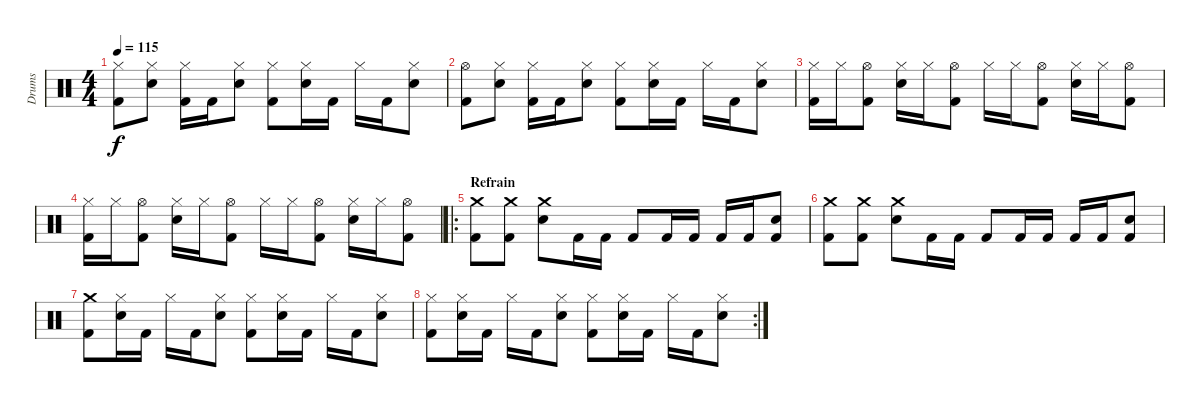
\track ("Drums" "Drums") {instrument percussion}
\staff {score}
\articulation defaults
\ts (4 4)
\tempo 115
\clef neutral
\ks c
("Hi-Hat (closed)" "Kick (hit) 2").8{dy f} ("Hi-Hat (closed)" "Electric Snare (hit)").8 ("Hi-Hat (closed)" "Kick (hit) 2").16 "Kick (hit) 2".16 ("Hi-Hat (closed)" "Electric Snare (hit)").8 ("Hi-Hat (closed)" "Kick (hit) 2").8 ("Hi-Hat (closed)" "Electric Snare (hit)").16 "Kick (hit) 2".16 "Hi-Hat (closed)".16 "Kick (hit) 2".16 ("Hi-Hat (closed)" "Electric Snare (hit)").8 |
("Hi-Hat (open)" "Kick (hit) 2").8 ("Hi-Hat (closed)" "Electric Snare (hit)").8 ("Hi-Hat (closed)" "Kick (hit) 2").16 "Kick (hit) 2".16 ("Hi-Hat (closed)" "Electric Snare (hit)").8 ("Hi-Hat (closed)" "Kick (hit) 2").8 ("Hi-Hat (closed)" "Electric Snare (hit)").16 "Kick (hit) 2".16 "Hi-Hat (closed)".16 "Kick (hit) 2".16 ("Hi-Hat (closed)" "Electric Snare (hit)").8 |
("Hi-Hat (closed)" "Kick (hit) 2").16 "Hi-Hat (closed)".16 ("Hi-Hat (open)" "Kick (hit) 2").8 ("Hi-Hat (closed)" "Electric Snare (hit)").16 "Hi-Hat (closed)".16 ("Hi-Hat (open)" "Kick (hit) 2").8 "Hi-Hat (closed)".16 "Hi-Hat (closed)".16 ("Hi-Hat (open)" "Kick (hit) 2").8 ("Hi-Hat (closed)" "Electric Snare (hit)").16 "Hi-Hat (closed)".16 ("Hi-Hat (open)" "Kick (hit) 2").8 |
("Hi-Hat (closed)" "Kick (hit) 2").16 "Hi-Hat (closed)".16 ("Hi-Hat (open)" "Kick (hit) 2").8 ("Hi-Hat (closed)" "Electric Snare (hit)").16 "Hi-Hat (closed)".16 ("Hi-Hat (open)" "Kick (hit) 2").8 "Hi-Hat (closed)".16 "Hi-Hat (closed)".16 ("Hi-Hat (open)" "Kick (hit) 2").8 ("Hi-Hat (closed)" "Electric Snare (hit)").16 "Hi-Hat (closed)".16 ("Hi-Hat (open)" "Kick (hit) 2").8 |
\ro
\section ("" "Refrain")
("Crash medium (hit)" "Kick (hit) 2").8 ("Crash medium (hit)" "Kick (hit) 2").8 ("Crash medium (hit)" "Electric Snare (hit)").8 "Kick (hit) 2".16 "Kick (hit) 2".16 "Kick (hit) 2".8 "Kick (hit) 2".16 "Kick (hit) 2".16 "Kick (hit) 2".16 "Kick (hit) 2".16 ("Electric Snare (hit)" "Kick (hit) 2").8 |
("Crash medium (hit)" "Kick (hit) 2").8 ("Crash medium (hit)" "Kick (hit) 2").8 ("Crash medium (hit)" "Electric Snare (hit)").8 "Kick (hit) 2".16 "Kick (hit) 2".16 "Kick (hit) 2".8 "Kick (hit) 2".16 "Kick (hit) 2".16 "Kick (hit) 2".16 "Kick (hit) 2".16 ("Electric Snare (hit)" "Kick (hit) 2").8 |
("Crash medium (hit)" "Kick (hit) 2").8 ("Hi-Hat (closed)" "Electric Snare (hit)").16 "Kick (hit) 2".16 "Hi-Hat (closed)".16 "Kick (hit) 2".16 ("Hi-Hat (closed)" "Electric Snare (hit)").8 ("Hi-Hat (closed)" "Kick (hit) 2").8 ("Hi-Hat (closed)" "Electric Snare (hit)").16 "Kick (hit) 2".16 "Hi-Hat (closed)".16 "Kick (hit) 2".16 ("Hi-Hat (closed)" "Electric Snare (hit)").8 |
\rc 2
("Hi-Hat (closed)" "Kick (hit) 2").8 ("Hi-Hat (closed)" "Electric Snare (hit)").16 "Kick (hit) 2".16 "Hi-Hat (closed)".16 "Kick (hit) 2".16 ("Hi-Hat (closed)" "Electric Snare (hit)").8 ("Hi-Hat (closed)" "Kick (hit) 2").8 ("Hi-Hat (closed)" "Electric Snare (hit)").16 "Kick (hit) 2".16 "Hi-Hat (closed)".16 "Kick (hit) 2".16 ("Hi-Hat (closed)" "Electric Snare (hit)").8
